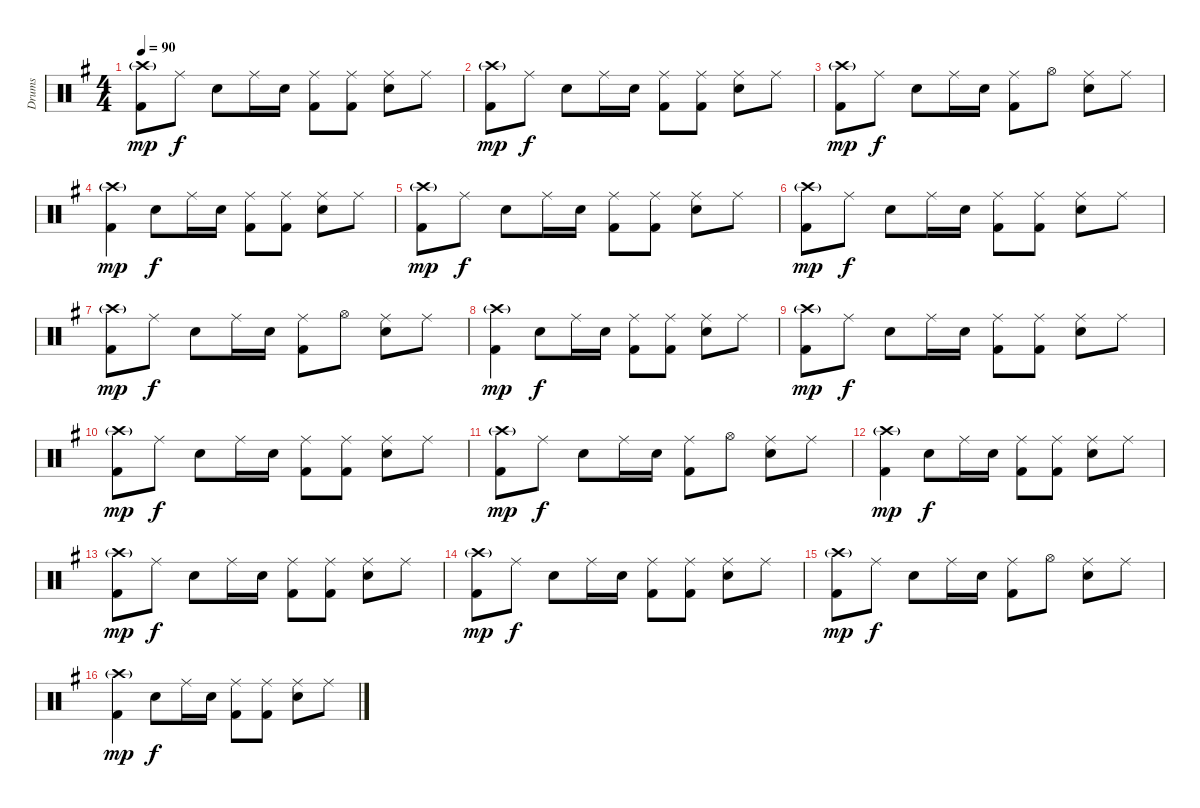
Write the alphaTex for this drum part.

\track ("Drums" "Drums") {instrument percussion}
\staff {score}
\articulation defaults
\ts (4 4)
\tempo 90
\clef neutral
\ks g
("Crash high (hit)"{g} "Kick (hit) 2").8{dy mp} "Ride (middle)".8{dy f} "Snare (hit) 2".8 "Ride (middle)".16 "Snare (hit) 2".16 ("Ride (middle)" "Kick (hit) 2").8 ("Ride (middle)" "Kick (hit) 2").8 ("Ride (middle)" "Snare (hit) 2").8 "Ride (middle)".8 |
("Crash high (hit)"{g} "Kick (hit) 2").8{dy mp} "Ride (middle)".8{dy f} "Snare (hit) 2".8 "Ride (middle)".16 "Snare (hit) 2".16 ("Ride (middle)" "Kick (hit) 2").8 ("Ride (middle)" "Kick (hit) 2").8 ("Ride (middle)" "Snare (hit) 2").8 "Ride (middle)".8 |
("Crash high (hit)"{g} "Kick (hit) 2").8{dy mp} "Ride (middle)".8{dy f} "Snare (hit) 2".8 "Ride (middle)".16 "Snare (hit) 2".16 ("Ride (middle)" "Kick (hit) 2").8 "Hi-Hat (open)".8 ("Ride (middle)" "Snare (hit) 2").8 "Ride (middle)".8 |
("Crash high (hit)"{g} "Kick (hit) 2").4{dy mp} "Snare (hit) 2".8{dy f} "Ride (middle)".16 "Snare (hit) 2".16 ("Ride (middle)" "Kick (hit) 2").8 ("Ride (middle)" "Kick (hit) 2").8 ("Ride (middle)" "Snare (hit) 2").8 "Ride (middle)".8 |
("Crash high (hit)"{g} "Kick (hit) 2").8{dy mp} "Ride (middle)".8{dy f} "Snare (hit) 2".8 "Ride (middle)".16 "Snare (hit) 2".16 ("Ride (middle)" "Kick (hit) 2").8 ("Ride (middle)" "Kick (hit) 2").8 ("Ride (middle)" "Snare (hit) 2").8 "Ride (middle)".8 |
("Crash high (hit)"{g} "Kick (hit) 2").8{dy mp} "Ride (middle)".8{dy f} "Snare (hit) 2".8 "Ride (middle)".16 "Snare (hit) 2".16 ("Ride (middle)" "Kick (hit) 2").8 ("Ride (middle)" "Kick (hit) 2").8 ("Ride (middle)" "Snare (hit) 2").8 "Ride (middle)".8 |
("Crash high (hit)"{g} "Kick (hit) 2").8{dy mp} "Ride (middle)".8{dy f} "Snare (hit) 2".8 "Ride (middle)".16 "Snare (hit) 2".16 ("Ride (middle)" "Kick (hit) 2").8 "Hi-Hat (open)".8 ("Ride (middle)" "Snare (hit) 2").8 "Ride (middle)".8 |
("Crash high (hit)"{g} "Kick (hit) 2").4{dy mp} "Snare (hit) 2".8{dy f} "Ride (middle)".16 "Snare (hit) 2".16 ("Ride (middle)" "Kick (hit) 2").8 ("Ride (middle)" "Kick (hit) 2").8 ("Ride (middle)" "Snare (hit) 2").8 "Ride (middle)".8 |
("Crash high (hit)"{g} "Kick (hit) 2").8{dy mp} "Ride (middle)".8{dy f} "Snare (hit) 2".8 "Ride (middle)".16 "Snare (hit) 2".16 ("Ride (middle)" "Kick (hit) 2").8 ("Ride (middle)" "Kick (hit) 2").8 ("Ride (middle)" "Snare (hit) 2").8 "Ride (middle)".8 |
("Crash high (hit)"{g} "Kick (hit) 2").8{dy mp} "Ride (middle)".8{dy f} "Snare (hit) 2".8 "Ride (middle)".16 "Snare (hit) 2".16 ("Ride (middle)" "Kick (hit) 2").8 ("Ride (middle)" "Kick (hit) 2").8 ("Ride (middle)" "Snare (hit) 2").8 "Ride (middle)".8 |
("Crash high (hit)"{g} "Kick (hit) 2").8{dy mp} "Ride (middle)".8{dy f} "Snare (hit) 2".8 "Ride (middle)".16 "Snare (hit) 2".16 ("Ride (middle)" "Kick (hit) 2").8 "Hi-Hat (open)".8 ("Ride (middle)" "Snare (hit) 2").8 "Ride (middle)".8 |
("Crash high (hit)"{g} "Kick (hit) 2").4{dy mp} "Snare (hit) 2".8{dy f} "Ride (middle)".16 "Snare (hit) 2".16 ("Ride (middle)" "Kick (hit) 2").8 ("Ride (middle)" "Kick (hit) 2").8 ("Ride (middle)" "Snare (hit) 2").8 "Ride (middle)".8 |
("Crash high (hit)"{g} "Kick (hit) 2").8{dy mp} "Ride (middle)".8{dy f} "Snare (hit) 2".8 "Ride (middle)".16 "Snare (hit) 2".16 ("Ride (middle)" "Kick (hit) 2").8 ("Ride (middle)" "Kick (hit) 2").8 ("Ride (middle)" "Snare (hit) 2").8 "Ride (middle)".8 |
("Crash high (hit)"{g} "Kick (hit) 2").8{dy mp} "Ride (middle)".8{dy f} "Snare (hit) 2".8 "Ride (middle)".16 "Snare (hit) 2".16 ("Ride (middle)" "Kick (hit) 2").8 ("Ride (middle)" "Kick (hit) 2").8 ("Ride (middle)" "Snare (hit) 2").8 "Ride (middle)".8 |
("Crash high (hit)"{g} "Kick (hit) 2").8{dy mp} "Ride (middle)".8{dy f} "Snare (hit) 2".8 "Ride (middle)".16 "Snare (hit) 2".16 ("Ride (middle)" "Kick (hit) 2").8 "Hi-Hat (open)".8 ("Ride (middle)" "Snare (hit) 2").8 "Ride (middle)".8 |
("Crash high (hit)"{g} "Kick (hit) 2").4{dy mp} "Snare (hit) 2".8{dy f} "Ride (middle)".16 "Snare (hit) 2".16 ("Ride (middle)" "Kick (hit) 2").8 ("Ride (middle)" "Kick (hit) 2").8 ("Ride (middle)" "Snare (hit) 2").8 "Ride (middle)".8
